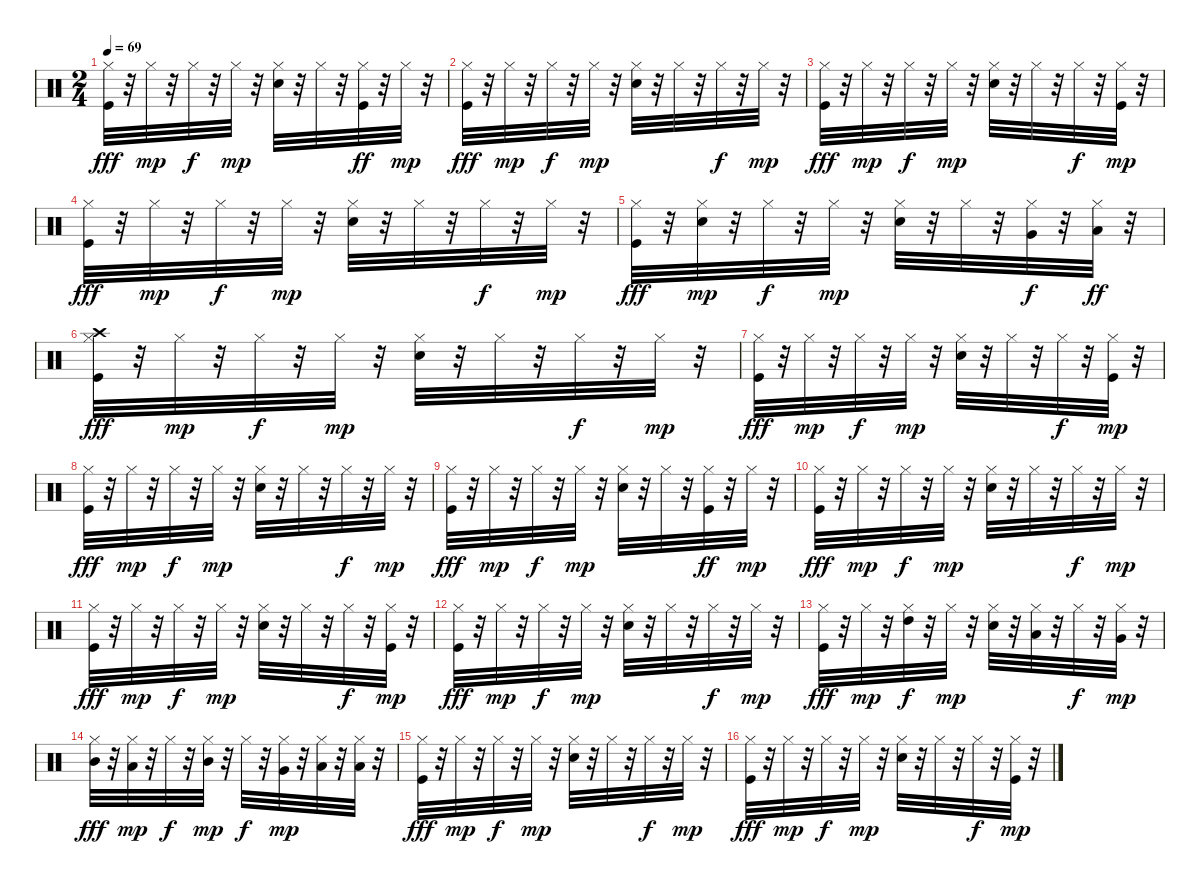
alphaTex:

\track "" {instrument percussion}
\staff {score}
\articulation defaults
\ts (2 4)
\tempo 69
\clef neutral
\ks c
("Kick (hit)" "Hi-Hat (closed)").32{dy fff} r.32 "Hi-Hat (closed)".32{dy mp} r.32 "Hi-Hat (closed)".32{dy f} r.32 "Hi-Hat (closed)".32{dy mp} r.32 ("Metronome (bell)" "Hi-Hat (closed)").32 r.32 "Hi-Hat (closed)".32 r.32 ("Hi-Hat (closed)" "Kick (hit)").32{dy ff} r.32 "Hi-Hat (closed)".32{dy mp} r.32 |
("Hi-Hat (closed)" "Kick (hit)").32{dy fff} r.32 "Hi-Hat (closed)".32{dy mp} r.32 "Hi-Hat (closed)".32{dy f} r.32 "Hi-Hat (closed)".32{dy mp} r.32 ("Metronome (bell)" "Hi-Hat (closed)").32 r.32 "Hi-Hat (closed)".32 r.32 "Hi-Hat (closed)".32{dy f} r.32 "Hi-Hat (closed)".32{dy mp} r.32 |
("Kick (hit)" "Hi-Hat (closed)").32{dy fff} r.32 "Hi-Hat (closed)".32{dy mp} r.32 "Hi-Hat (closed)".32{dy f} r.32 "Hi-Hat (closed)".32{dy mp} r.32 ("Metronome (bell)" "Hi-Hat (closed)").32 r.32 "Hi-Hat (closed)".32 r.32 "Hi-Hat (closed)".32{dy f} r.32 ("Kick (hit)" "Hi-Hat (closed)").32{dy mp} r.32 |
("Hi-Hat (closed)" "Kick (hit)").32{dy fff} r.32 "Hi-Hat (closed)".32{dy mp} r.32 "Hi-Hat (closed)".32{dy f} r.32 "Hi-Hat (closed)".32{dy mp} r.32 ("Metronome (bell)" "Hi-Hat (closed)").32 r.32 "Hi-Hat (closed)".32 r.32 "Hi-Hat (closed)".32{dy f} r.32 "Hi-Hat (closed)".32{dy mp} r.32 |
("Kick (hit)" "Hi-Hat (closed)").32{dy fff} r.32 ("Hi-Hat (closed)" "Metronome (bell)").32{dy mp} r.32 "Hi-Hat (closed)".32{dy f} r.32 "Hi-Hat (closed)".32{dy mp} r.32 ("Metronome (bell)" "Hi-Hat (closed)").32 r.32 "Hi-Hat (closed)".32 r.32 ("Hi-Hat (closed)" "Very Low Tom (hit)").32{dy f} r.32 ("Hi-Hat (closed)" "Low Floor Tom (hit)").32{dy ff} r.32 |
("Crash high (hit)" "Hi-Hat (closed)" "Kick (hit)").32{dy fff} r.32 "Hi-Hat (closed)".32{dy mp} r.32 "Hi-Hat (closed)".32{dy f} r.32 "Hi-Hat (closed)".32{dy mp} r.32 ("Metronome (bell)" "Hi-Hat (closed)").32 r.32 "Hi-Hat (closed)".32 r.32 "Hi-Hat (closed)".32{dy f} r.32 "Hi-Hat (closed)".32{dy mp} r.32 |
("Kick (hit)" "Hi-Hat (closed)").32{dy fff} r.32 "Hi-Hat (closed)".32{dy mp} r.32 "Hi-Hat (closed)".32{dy f} r.32 "Hi-Hat (closed)".32{dy mp} r.32 ("Metronome (bell)" "Hi-Hat (closed)").32 r.32 "Hi-Hat (closed)".32 r.32 "Hi-Hat (closed)".32{dy f} r.32 ("Kick (hit)" "Hi-Hat (closed)").32{dy mp} r.32 |
("Hi-Hat (closed)" "Kick (hit)").32{dy fff} r.32 "Hi-Hat (closed)".32{dy mp} r.32 "Hi-Hat (closed)".32{dy f} r.32 "Hi-Hat (closed)".32{dy mp} r.32 ("Metronome (bell)" "Hi-Hat (closed)").32 r.32 "Hi-Hat (closed)".32 r.32 "Hi-Hat (closed)".32{dy f} r.32 "Hi-Hat (closed)".32{dy mp} r.32 |
("Kick (hit)" "Hi-Hat (closed)").32{dy fff} r.32 "Hi-Hat (closed)".32{dy mp} r.32 "Hi-Hat (closed)".32{dy f} r.32 "Hi-Hat (closed)".32{dy mp} r.32 ("Metronome (bell)" "Hi-Hat (closed)").32 r.32 "Hi-Hat (closed)".32 r.32 ("Hi-Hat (closed)" "Kick (hit)").32{dy ff} r.32 "Hi-Hat (closed)".32{dy mp} r.32 |
("Hi-Hat (closed)" "Kick (hit)").32{dy fff} r.32 "Hi-Hat (closed)".32{dy mp} r.32 "Hi-Hat (closed)".32{dy f} r.32 "Hi-Hat (closed)".32{dy mp} r.32 ("Metronome (bell)" "Hi-Hat (closed)").32 r.32 "Hi-Hat (closed)".32 r.32 "Hi-Hat (closed)".32{dy f} r.32 "Hi-Hat (closed)".32{dy mp} r.32 |
("Kick (hit)" "Hi-Hat (closed)").32{dy fff} r.32 "Hi-Hat (closed)".32{dy mp} r.32 "Hi-Hat (closed)".32{dy f} r.32 "Hi-Hat (closed)".32{dy mp} r.32 ("Metronome (bell)" "Hi-Hat (closed)").32 r.32 "Hi-Hat (closed)".32 r.32 "Hi-Hat (closed)".32{dy f} r.32 ("Kick (hit)" "Hi-Hat (closed)").32{dy mp} r.32 |
("Hi-Hat (closed)" "Kick (hit)").32{dy fff} r.32 "Hi-Hat (closed)".32{dy mp} r.32 "Hi-Hat (closed)".32{dy f} r.32 "Hi-Hat (closed)".32{dy mp} r.32 ("Metronome (bell)" "Hi-Hat (closed)").32 r.32 "Hi-Hat (closed)".32 r.32 "Hi-Hat (closed)".32{dy f} r.32 "Hi-Hat (closed)".32{dy mp} r.32 |
("Kick (hit)" "Hi-Hat (closed)").32{dy fff} r.32 "Hi-Hat (closed)".32{dy mp} r.32 ("Hi-Hat (closed)" "High Tom (hit)").32{dy f} r.32 "Hi-Hat (closed)".32{dy mp} r.32 ("Metronome (bell)" "Hi-Hat (closed)").32 r.32 ("Hi-Hat (closed)" "Low Tom (hit)").32 r.32 "Hi-Hat (closed)".32{dy f} r.32 ("Hi-Hat (closed)" "Very Low Tom (hit)").32{dy mp} r.32 |
("Hi-Hat (closed)" "Mid Tom (hit)").32{dy fff} r.32 ("Hi-Hat (closed)" "Low Tom (hit)").32{dy mp} r.32 "Hi-Hat (closed)".32{dy f} r.32 ("Hi-Hat (closed)" "Mid Tom (hit)").32{dy mp} r.32 "Hi-Hat (closed)".32{dy f} r.32 ("Very Low Tom (hit)" "Hi-Hat (closed)").32{dy mp} r.32 ("Low Floor Tom (hit)" "Hi-Hat (closed)").32 r.32 ("Low Floor Tom (hit)" "Hi-Hat (closed)").32 r.32 |
("Hi-Hat (closed)" "Kick (hit)").32{dy fff} r.32 "Hi-Hat (closed)".32{dy mp} r.32 "Hi-Hat (closed)".32{dy f} r.32 "Hi-Hat (closed)".32{dy mp} r.32 ("Metronome (bell)" "Hi-Hat (closed)").32 r.32 "Hi-Hat (closed)".32 r.32 "Hi-Hat (closed)".32{dy f} r.32 "Hi-Hat (closed)".32{dy mp} r.32 |
("Kick (hit)" "Hi-Hat (closed)").32{dy fff} r.32 "Hi-Hat (closed)".32{dy mp} r.32 "Hi-Hat (closed)".32{dy f} r.32 "Hi-Hat (closed)".32{dy mp} r.32 ("Metronome (bell)" "Hi-Hat (closed)").32 r.32 "Hi-Hat (closed)".32 r.32 "Hi-Hat (closed)".32{dy f} r.32 ("Kick (hit)" "Hi-Hat (closed)").32{dy mp} r.32
